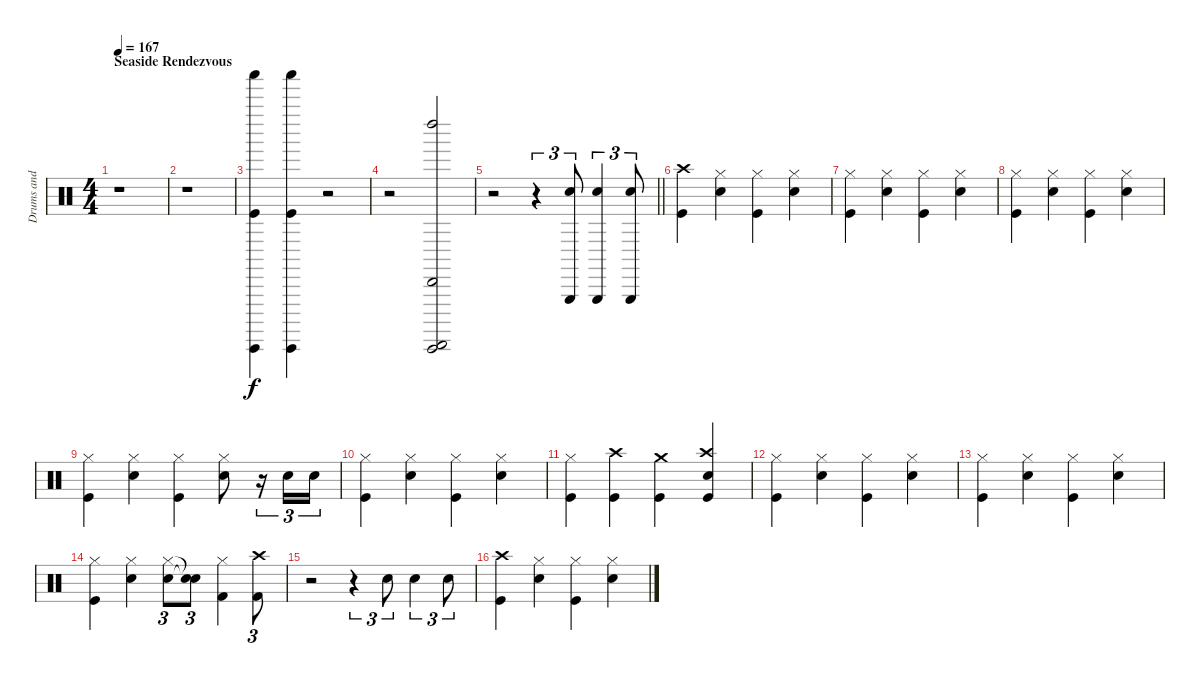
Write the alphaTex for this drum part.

\track ("Drums and percussion" "Drums and ") {instrument percussion}
\staff {score}
\articulation defaults
\ts (4 4)
\section ("" "Seaside Rendezvous")
\tempo 167
\clef neutral
\ks c
r.1{dy f} |
r.1 |
("Shaker (hit)" "Guiro (hit)" "Kick (hit)").4{volume 13} ("Shaker (hit)" "Guiro (hit)" "Kick (hit)").4 r.2 |
r.2 ("Guiro (scrap-return)" "Guiro (hit)" "Cabasa (hit)" "Left Maraca (hit)").2 |
\barLineRight lightlight
r.2 r.4{tu (3 2)} ("Triangle (hit)" "Electric Snare (hit)").8{tu (3 2)} ("Triangle (hit)" "Electric Snare (hit)").4{tu (3 2)} ("Triangle (hit)" "Electric Snare (hit)").8{tu (3 2)} |
("Crash high (hit)" "Kick (hit)").4 ("Hi-Hat (closed)" "Snare (hit) 2").4 ("Hi-Hat (closed)" "Kick (hit)").4 ("Hi-Hat (closed)" "Snare (hit) 2").4 |
("Hi-Hat (closed)" "Kick (hit)").4 ("Hi-Hat (closed)" "Snare (hit) 2").4 ("Hi-Hat (closed)" "Kick (hit)").4 ("Hi-Hat (closed)" "Snare (hit) 2").4 |
("Hi-Hat (closed)" "Kick (hit)").4 ("Hi-Hat (closed)" "Snare (hit) 2").4 ("Hi-Hat (closed)" "Kick (hit)").4 ("Hi-Hat (closed)" "Snare (hit) 2").4 |
("Hi-Hat (closed)" "Kick (hit)").4 ("Hi-Hat (closed)" "Snare (hit) 2").4 ("Hi-Hat (closed)" "Kick (hit)").4 ("Hi-Hat (closed)" "Snare (hit) 2").8 r.16{tu (3 2)} "Snare (hit) 2".16{tu (3 2)} "Snare (hit) 2".16{tu (3 2)} |
("Hi-Hat (closed)" "Kick (hit)").4 ("Hi-Hat (closed)" "Snare (hit) 2").4 ("Hi-Hat (closed)" "Kick (hit)").4 ("Hi-Hat (closed)" "Snare (hit) 2").4 |
("Hi-Hat (closed)" "Kick (hit)").4 ("Crash high (hit)" "Kick (hit)").4 ("Crash medium (hit)" "Kick (hit)").4 ("Crash high (hit)" "Snare (hit) 2" "Kick (hit)").4 |
("Hi-Hat (closed)" "Kick (hit)").4 ("Hi-Hat (closed)" "Snare (hit) 2").4 ("Hi-Hat (closed)" "Kick (hit)").4 ("Hi-Hat (closed)" "Snare (hit) 2").4 |
("Hi-Hat (closed)" "Kick (hit)").4 ("Hi-Hat (closed)" "Snare (hit) 2").4 ("Hi-Hat (closed)" "Kick (hit)").4 ("Hi-Hat (closed)" "Snare (hit) 2").4 |
("Hi-Hat (closed)" "Kick (hit)").4 ("Hi-Hat (closed)" "Snare (hit) 2").4 ("Hi-Hat (closed)" "Snare (hit) 2").8{tu (3 2)} ("Snare (hit)"{t} "Snare (hit)"{t}).8{tu (3 2)} ("Hi-Hat (closed)" "Kick (hit) 2").4 ("Crash high (hit)" "Kick (hit) 2").8{tu (3 2)} |
r.2 r.4{tu (3 2)} "Electric Snare (hit)".8{tu (3 2)} "Electric Snare (hit)".4{tu (3 2)} "Electric Snare (hit)".8{tu (3 2)} |
("Crash high (hit)" "Kick (hit)").4 ("Hi-Hat (closed)" "Snare (hit) 2").4 ("Hi-Hat (closed)" "Kick (hit)").4 ("Hi-Hat (closed)" "Snare (hit) 2").4
